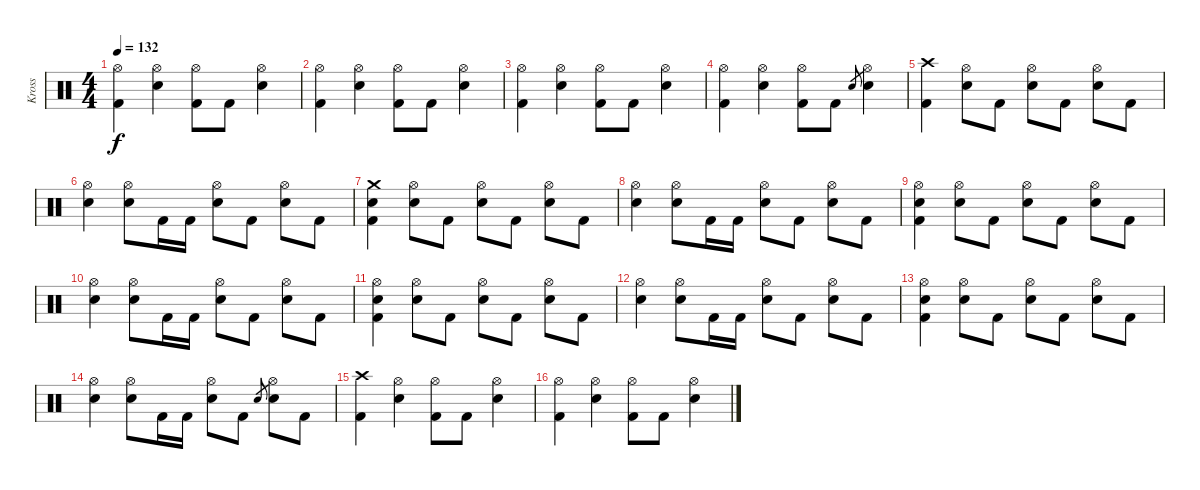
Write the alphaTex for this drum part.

\track ("Kross" "Kross") {instrument percussion}
\staff {score}
\articulation defaults
\ts (4 4)
\tempo 132
\clef neutral
\ks c
("Hi-Hat (open)" "Kick (hit) 2").4{dy f} ("Hi-Hat (open)" "Electric Snare (hit)").4 ("Hi-Hat (open)" "Kick (hit) 2").8 "Kick (hit) 2".8 ("Hi-Hat (open)" "Electric Snare (hit)").4 |
("Hi-Hat (open)" "Kick (hit) 2").4 ("Hi-Hat (open)" "Electric Snare (hit)").4 ("Hi-Hat (open)" "Kick (hit) 2").8 "Kick (hit) 2".8 ("Hi-Hat (open)" "Electric Snare (hit)").4 |
("Hi-Hat (open)" "Kick (hit) 2").4 ("Hi-Hat (open)" "Electric Snare (hit)").4 ("Hi-Hat (open)" "Kick (hit) 2").8 "Kick (hit) 2".8 ("Hi-Hat (open)" "Electric Snare (hit)").4 |
("Hi-Hat (open)" "Kick (hit) 2").4 ("Hi-Hat (open)" "Electric Snare (hit)").4 ("Hi-Hat (open)" "Kick (hit) 2").8 "Kick (hit) 2".8 "Electric Snare (hit)".8{gr} ("Hi-Hat (open)" "Electric Snare (hit)").4 |
("Crash high (hit)" "Kick (hit) 2").4 ("Hi-Hat (open)" "Electric Snare (hit)").8 "Kick (hit) 2".8 ("Hi-Hat (open)" "Electric Snare (hit)").8 "Kick (hit) 2".8 ("Hi-Hat (open)" "Electric Snare (hit)").8 "Kick (hit) 2".8 |
("Hi-Hat (open)" "Electric Snare (hit)").4 ("Hi-Hat (open)" "Electric Snare (hit)").8 "Kick (hit) 2".16 "Kick (hit) 2".16 ("Hi-Hat (open)" "Electric Snare (hit)").8 "Kick (hit) 2".8 ("Hi-Hat (open)" "Electric Snare (hit)").8 "Kick (hit) 2".8 |
("Crash medium (hit)" "Electric Snare (hit)" "Kick (hit) 2").4 ("Hi-Hat (open)" "Electric Snare (hit)").8 "Kick (hit) 2".8 ("Hi-Hat (open)" "Electric Snare (hit)").8 "Kick (hit) 2".8 ("Hi-Hat (open)" "Electric Snare (hit)").8 "Kick (hit) 2".8 |
("Hi-Hat (open)" "Electric Snare (hit)").4 ("Hi-Hat (open)" "Electric Snare (hit)").8 "Kick (hit) 2".16 "Kick (hit) 2".16 ("Hi-Hat (open)" "Electric Snare (hit)").8 "Kick (hit) 2".8 ("Hi-Hat (open)" "Electric Snare (hit)").8 "Kick (hit) 2".8 |
("Hi-Hat (open)" "Electric Snare (hit)" "Kick (hit) 2").4 ("Hi-Hat (open)" "Electric Snare (hit)").8 "Kick (hit) 2".8 ("Hi-Hat (open)" "Electric Snare (hit)").8 "Kick (hit) 2".8 ("Hi-Hat (open)" "Electric Snare (hit)").8 "Kick (hit) 2".8 |
("Hi-Hat (open)" "Electric Snare (hit)").4 ("Hi-Hat (open)" "Electric Snare (hit)").8 "Kick (hit) 2".16 "Kick (hit) 2".16 ("Hi-Hat (open)" "Electric Snare (hit)").8 "Kick (hit) 2".8 ("Hi-Hat (open)" "Electric Snare (hit)").8 "Kick (hit) 2".8 |
("Hi-Hat (open)" "Electric Snare (hit)" "Kick (hit) 2").4 ("Hi-Hat (open)" "Electric Snare (hit)").8 "Kick (hit) 2".8 ("Hi-Hat (open)" "Electric Snare (hit)").8 "Kick (hit) 2".8 ("Hi-Hat (open)" "Electric Snare (hit)").8 "Kick (hit) 2".8 |
("Hi-Hat (open)" "Electric Snare (hit)").4 ("Hi-Hat (open)" "Electric Snare (hit)").8 "Kick (hit) 2".16 "Kick (hit) 2".16 ("Hi-Hat (open)" "Electric Snare (hit)").8 "Kick (hit) 2".8 ("Hi-Hat (open)" "Electric Snare (hit)").8 "Kick (hit) 2".8 |
("Hi-Hat (open)" "Electric Snare (hit)" "Kick (hit) 2").4 ("Hi-Hat (open)" "Electric Snare (hit)").8 "Kick (hit) 2".8 ("Hi-Hat (open)" "Electric Snare (hit)").8 "Kick (hit) 2".8 ("Hi-Hat (open)" "Electric Snare (hit)").8 "Kick (hit) 2".8 |
("Hi-Hat (open)" "Electric Snare (hit)").4 ("Hi-Hat (open)" "Electric Snare (hit)").8 "Kick (hit) 2".16 "Kick (hit) 2".16 ("Hi-Hat (open)" "Electric Snare (hit)").8 "Kick (hit) 2".8 "Electric Snare (hit)".8{gr} ("Hi-Hat (open)" "Electric Snare (hit)").8 "Kick (hit) 2".8 |
("Crash high (hit)" "Kick (hit) 2").4 ("Hi-Hat (open)" "Electric Snare (hit)").4 ("Hi-Hat (open)" "Kick (hit) 2").8 "Kick (hit) 2".8 ("Hi-Hat (open)" "Electric Snare (hit)").4 |
("Hi-Hat (open)" "Kick (hit) 2").4 ("Hi-Hat (open)" "Electric Snare (hit)").4 ("Hi-Hat (open)" "Kick (hit) 2").8 "Kick (hit) 2".8 ("Hi-Hat (open)" "Electric Snare (hit)").4
